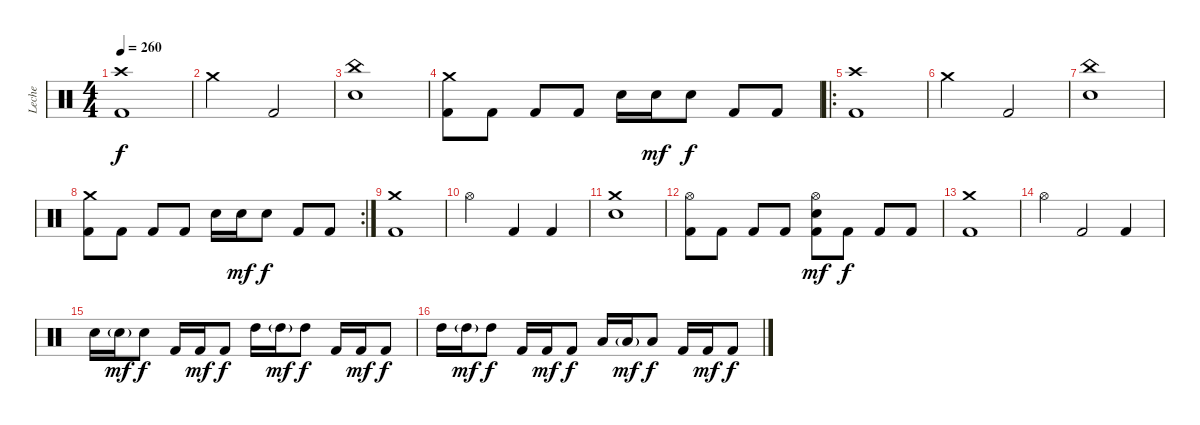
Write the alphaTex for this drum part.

\track ("Leche" "Leche") {instrument percussion}
\staff {score}
\articulation defaults
\ts (4 4)
\tempo 260
\clef neutral
\ks c
("Crash high (hit)" "Kick (hit) 2").1{dy f} |
"Crash medium (hit)".2 "Kick (hit) 2".2 |
("China (hit)" "Electric Snare (hit)").1 |
("Crash medium (hit)" "Kick (hit) 2").8 "Kick (hit) 2".8 "Kick (hit) 2".8 "Kick (hit) 2".8 "Electric Snare (hit)".16 "Electric Snare (hit)".16{dy mf} "Electric Snare (hit)".8{dy f} "Kick (hit) 2".8 "Kick (hit) 2".8 |
\ro
("Crash high (hit)" "Kick (hit) 2").1 |
"Crash medium (hit)".2 "Kick (hit) 2".2 |
("China (hit)" "Electric Snare (hit)").1 |
\rc 2
("Crash medium (hit)" "Kick (hit) 2").8 "Kick (hit) 2".8 "Kick (hit) 2".8 "Kick (hit) 2".8 "Electric Snare (hit)".16 "Electric Snare (hit)".16{dy mf} "Electric Snare (hit)".8{dy f} "Kick (hit) 2".8 "Kick (hit) 2".8 |
("Crash medium (hit)" "Kick (hit) 2").1 |
"Hi-Hat (open)".2 "Kick (hit) 2".4 "Kick (hit) 2".4 |
("Crash medium (hit)" "Electric Snare (hit)").1 |
("Hi-Hat (open)" "Kick (hit) 2").8 "Kick (hit) 2".8 "Kick (hit) 2".8 "Kick (hit) 2".8 ("Hi-Hat (open)" "Electric Snare (hit)" "Kick (hit) 2").8{dy mf} "Kick (hit) 2".8{dy f} "Kick (hit) 2".8 "Kick (hit) 2".8 |
("Crash medium (hit)" "Kick (hit) 2").1 |
"Hi-Hat (open)".4 "Kick (hit) 2".2 "Kick (hit) 2".4 |
"Electric Snare (hit)".16 "Electric Snare (hit)"{g}.16{dy mf} "Electric Snare (hit)".8{dy f} "Kick (hit) 2".16 "Kick (hit) 2".16{dy mf} "Kick (hit) 2".8{dy f} "High Tom (hit)".16 "High Tom (hit)"{g}.16{dy mf} "High Tom (hit)".8{dy f} "Kick (hit) 2".16 "Kick (hit) 2".16{dy mf} "Kick (hit) 2".8{dy f} |
"High Tom (hit)".16 "High Tom (hit)"{g}.16{dy mf} "High Tom (hit)".8{dy f} "Kick (hit) 2".16 "Kick (hit) 2".16{dy mf} "Kick (hit) 2".8{dy f} "Low Tom (hit)".16 "Low Tom (hit)"{g}.16{dy mf} "Low Tom (hit)".8{dy f} "Kick (hit) 2".16 "Kick (hit) 2".16{dy mf} "Kick (hit) 2".8{dy f}
